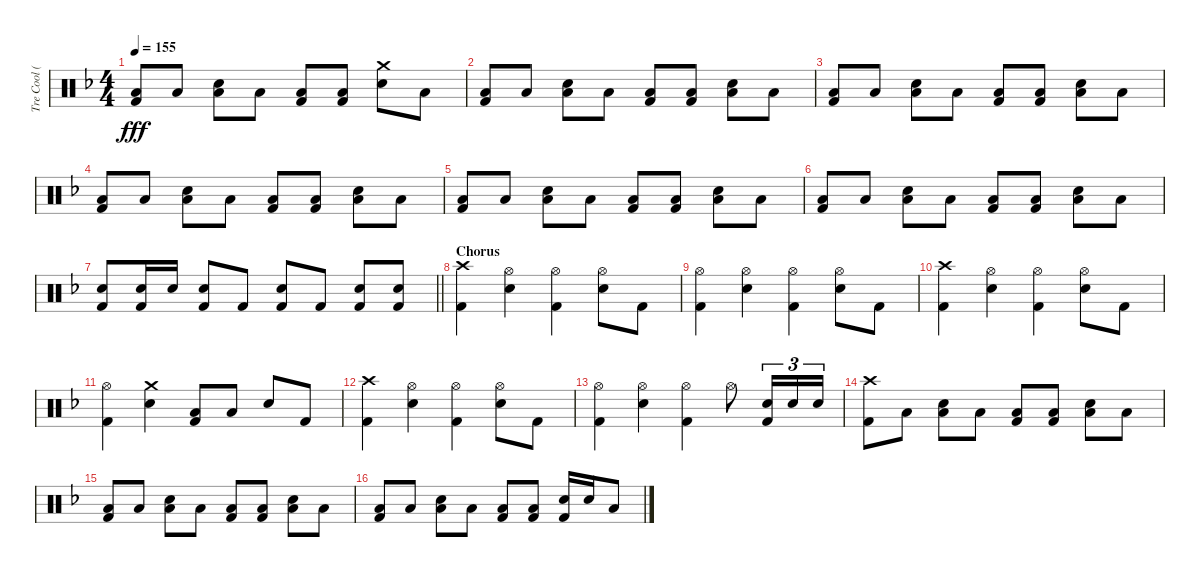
\track ("Tre Cool (Drums)" "Tre Cool (") {instrument percussion}
\staff {score}
\articulation defaults
\ts (4 4)
\tempo 155
\clef neutral
\ks f
("Low Floor Tom (hit)" "Kick (hit) 2").8{dy fff} "Low Floor Tom (hit)".8 ("Low Floor Tom (hit)" "Electric Snare (hit)").8 "Low Floor Tom (hit)".8 ("Low Floor Tom (hit)" "Kick (hit) 2").8 ("Low Floor Tom (hit)" "Kick (hit) 2").8 ("Crash medium (hit)" "Electric Snare (hit)").8 "Low Floor Tom (hit)".8 |
("Low Floor Tom (hit)" "Kick (hit) 2").8 "Low Floor Tom (hit)".8 ("Low Floor Tom (hit)" "Electric Snare (hit)").8 "Low Floor Tom (hit)".8 ("Low Floor Tom (hit)" "Kick (hit) 2").8 ("Low Floor Tom (hit)" "Kick (hit) 2").8 ("Low Floor Tom (hit)" "Electric Snare (hit)").8 "Low Floor Tom (hit)".8 |
("Low Floor Tom (hit)" "Kick (hit) 2").8 "Low Floor Tom (hit)".8 ("Low Floor Tom (hit)" "Electric Snare (hit)").8 "Low Floor Tom (hit)".8 ("Low Floor Tom (hit)" "Kick (hit) 2").8 ("Low Floor Tom (hit)" "Kick (hit) 2").8 ("Low Floor Tom (hit)" "Electric Snare (hit)").8 "Low Floor Tom (hit)".8 |
("Low Floor Tom (hit)" "Kick (hit) 2").8 "Low Floor Tom (hit)".8 ("Low Floor Tom (hit)" "Electric Snare (hit)").8 "Low Floor Tom (hit)".8 ("Low Floor Tom (hit)" "Kick (hit) 2").8 ("Low Floor Tom (hit)" "Kick (hit) 2").8 ("Low Floor Tom (hit)" "Electric Snare (hit)").8 "Low Floor Tom (hit)".8 |
("Low Floor Tom (hit)" "Kick (hit) 2").8 "Low Floor Tom (hit)".8 ("Low Floor Tom (hit)" "Electric Snare (hit)").8 "Low Floor Tom (hit)".8 ("Low Floor Tom (hit)" "Kick (hit) 2").8 ("Low Floor Tom (hit)" "Kick (hit) 2").8 ("Low Floor Tom (hit)" "Electric Snare (hit)").8 "Low Floor Tom (hit)".8 |
("Low Floor Tom (hit)" "Kick (hit) 2").8 "Low Floor Tom (hit)".8 ("Low Floor Tom (hit)" "Electric Snare (hit)").8 "Low Floor Tom (hit)".8 ("Low Floor Tom (hit)" "Kick (hit) 2").8 ("Low Floor Tom (hit)" "Kick (hit) 2").8 ("Low Floor Tom (hit)" "Electric Snare (hit)").8 "Low Floor Tom (hit)".8 |
\barLineRight lightlight
("Electric Snare (hit)" "Kick (hit) 2").8 ("Electric Snare (hit)" "Kick (hit) 2").16 "Electric Snare (hit)".16 ("Electric Snare (hit)" "Kick (hit) 2").8 "Kick (hit) 2".8 ("Electric Snare (hit)" "Kick (hit) 2").8 "Kick (hit) 2".8 ("Electric Snare (hit)" "Kick (hit) 2").8 ("Electric Snare (hit)" "Kick (hit) 2").8 |
\section ("" "Chorus")
("Crash high (hit)" "Kick (hit) 2").4 ("Hi-Hat (open)" "Electric Snare (hit)").4 ("Hi-Hat (open)" "Kick (hit) 2").4 ("Hi-Hat (open)" "Electric Snare (hit)").8 "Kick (hit) 2".8 |
("Hi-Hat (open)" "Kick (hit) 2").4 ("Hi-Hat (open)" "Electric Snare (hit)").4 ("Hi-Hat (open)" "Kick (hit) 2").4 ("Hi-Hat (open)" "Electric Snare (hit)").8 "Kick (hit) 2".8 |
("Crash high (hit)" "Kick (hit) 2").4 ("Hi-Hat (open)" "Electric Snare (hit)").4 ("Hi-Hat (open)" "Kick (hit) 2").4 ("Hi-Hat (open)" "Electric Snare (hit)").8 "Kick (hit) 2".8 |
("Hi-Hat (open)" "Kick (hit) 2").4 ("Crash medium (hit)" "Electric Snare (hit)").4 ("Low Tom (hit)" "Kick (hit) 2").8 "Low Floor Tom (hit)".8 "Electric Snare (hit)".8 "Kick (hit) 2".8 |
("Crash high (hit)" "Kick (hit) 2").4 ("Hi-Hat (open)" "Electric Snare (hit)").4 ("Hi-Hat (open)" "Kick (hit) 2").4 ("Hi-Hat (open)" "Electric Snare (hit)").8 "Kick (hit) 2".8 |
("Hi-Hat (open)" "Kick (hit) 2").4 ("Hi-Hat (open)" "Electric Snare (hit)").4 ("Hi-Hat (open)" "Kick (hit) 2").4 "Hi-Hat (open)".8 ("Kick (hit) 2" "Electric Snare (hit)").16{tu (3 2)} "Electric Snare (hit)".16{tu (3 2)} "Electric Snare (hit)".16{tu (3 2)} |
("Crash high (hit)" "Kick (hit) 2").8 "Low Floor Tom (hit)".8 ("Low Floor Tom (hit)" "Electric Snare (hit)").8 "Low Floor Tom (hit)".8 ("Low Floor Tom (hit)" "Kick (hit) 2").8 ("Low Floor Tom (hit)" "Kick (hit) 2").8 ("Low Floor Tom (hit)" "Electric Snare (hit)").8 "Low Floor Tom (hit)".8 |
("Low Floor Tom (hit)" "Kick (hit) 2").8 "Low Floor Tom (hit)".8 ("Low Floor Tom (hit)" "Electric Snare (hit)").8 "Low Floor Tom (hit)".8 ("Low Floor Tom (hit)" "Kick (hit) 2").8 ("Low Floor Tom (hit)" "Kick (hit) 2").8 ("Low Floor Tom (hit)" "Electric Snare (hit)").8 "Low Floor Tom (hit)".8 |
("Low Floor Tom (hit)" "Kick (hit) 2").8 "Low Floor Tom (hit)".8 ("Low Floor Tom (hit)" "Electric Snare (hit)").8 "Low Floor Tom (hit)".8 ("Low Floor Tom (hit)" "Kick (hit) 2").8 ("Low Floor Tom (hit)" "Kick (hit) 2").8 ("Kick (hit) 2" "Electric Snare (hit)").16 "Electric Snare (hit)".16 "Low Floor Tom (hit)".8
